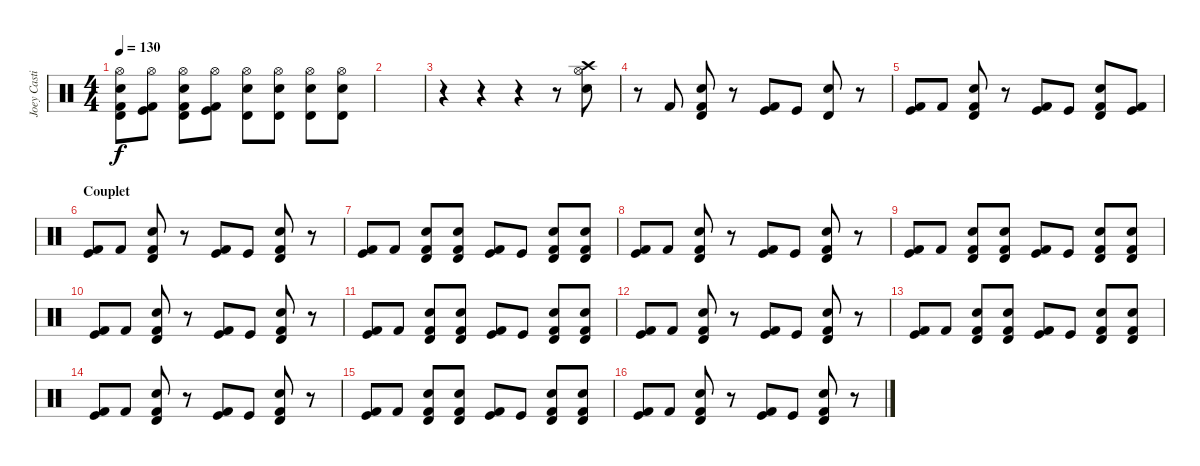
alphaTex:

\track ("Joey Castillo  (Batterie)" "Joey Casti") {instrument percussion}
\staff {score}
\articulation defaults
\ts (4 4)
\tempo 130
\clef neutral
\ks c
("Timbale high (hit)" "Electric Snare (hit)" "Kick (hit) 2" "Hi-Hat (open)").8{dy f} ("Kick (hit)" "Kick (hit) 2" "Hi-Hat (open)").8 ("Timbale high (hit)" "Electric Snare (hit)" "Kick (hit) 2" "Hi-Hat (open)").8 ("Kick (hit)" "Kick (hit) 2" "Hi-Hat (open)").8 ("Timbale high (hit)" "Electric Snare (hit)" "Hi-Hat (open)").8 ("Timbale high (hit)" "Electric Snare (hit)" "Hi-Hat (open)").8 ("Timbale high (hit)" "Electric Snare (hit)" "Hi-Hat (open)").8 ("Timbale high (hit)" "Electric Snare (hit)" "Hi-Hat (open)").8 |
\section ("" "")
|
r.4 r.4 r.4 r.8 ("Electric Snare (hit)" "Crash high (hit)" "Hi-Hat (open)").8 |
r.8 "Kick (hit) 2".8 ("Kick (hit) 2" "Timbale high (hit)" "Electric Snare (hit)").8 r.8 ("Kick (hit) 2" "Kick (hit)").8 "Kick (hit)".8 ("Timbale high (hit)" "Electric Snare (hit)").8 r.8 |
("Kick (hit) 2" "Kick (hit)").8 "Kick (hit) 2".8 ("Kick (hit) 2" "Timbale high (hit)" "Electric Snare (hit)").8 r.8 ("Kick (hit) 2" "Kick (hit)").8 "Kick (hit)".8 ("Kick (hit) 2" "Timbale high (hit)" "Electric Snare (hit)").8 ("Kick (hit)" "Kick (hit) 2").8 |
\section ("" "Couplet")
("Kick (hit) 2" "Kick (hit)").8 "Kick (hit) 2".8 ("Kick (hit) 2" "Timbale high (hit)" "Electric Snare (hit)").8 r.8 ("Kick (hit) 2" "Kick (hit)").8 "Kick (hit)".8 ("Kick (hit) 2" "Timbale high (hit)" "Electric Snare (hit)").8 r.8 |
("Kick (hit) 2" "Kick (hit)").8 "Kick (hit) 2".8 ("Kick (hit) 2" "Timbale high (hit)" "Electric Snare (hit)").8 ("Kick (hit) 2" "Timbale high (hit)" "Electric Snare (hit)").8 ("Kick (hit) 2" "Kick (hit)").8 "Kick (hit)".8 ("Kick (hit) 2" "Timbale high (hit)" "Electric Snare (hit)").8 ("Kick (hit) 2" "Timbale high (hit)" "Electric Snare (hit)").8 |
("Kick (hit) 2" "Kick (hit)").8 "Kick (hit) 2".8 ("Kick (hit) 2" "Timbale high (hit)" "Electric Snare (hit)").8 r.8 ("Kick (hit) 2" "Kick (hit)").8 "Kick (hit)".8 ("Kick (hit) 2" "Timbale high (hit)" "Electric Snare (hit)").8 r.8 |
("Kick (hit) 2" "Kick (hit)").8 "Kick (hit) 2".8 ("Kick (hit) 2" "Timbale high (hit)" "Electric Snare (hit)").8 ("Kick (hit) 2" "Timbale high (hit)" "Electric Snare (hit)").8 ("Kick (hit) 2" "Kick (hit)").8 "Kick (hit)".8 ("Kick (hit) 2" "Timbale high (hit)" "Electric Snare (hit)").8 ("Kick (hit) 2" "Timbale high (hit)" "Electric Snare (hit)").8 |
("Kick (hit) 2" "Kick (hit)").8 "Kick (hit) 2".8 ("Kick (hit) 2" "Timbale high (hit)" "Electric Snare (hit)").8 r.8 ("Kick (hit) 2" "Kick (hit)").8 "Kick (hit)".8 ("Kick (hit) 2" "Timbale high (hit)" "Electric Snare (hit)").8 r.8 |
("Kick (hit) 2" "Kick (hit)").8 "Kick (hit) 2".8 ("Kick (hit) 2" "Timbale high (hit)" "Electric Snare (hit)").8 ("Kick (hit) 2" "Timbale high (hit)" "Electric Snare (hit)").8 ("Kick (hit) 2" "Kick (hit)").8 "Kick (hit)".8 ("Kick (hit) 2" "Timbale high (hit)" "Electric Snare (hit)").8 ("Kick (hit) 2" "Timbale high (hit)" "Electric Snare (hit)").8 |
("Kick (hit) 2" "Kick (hit)").8 "Kick (hit) 2".8 ("Kick (hit) 2" "Timbale high (hit)" "Electric Snare (hit)").8 r.8 ("Kick (hit) 2" "Kick (hit)").8 "Kick (hit)".8 ("Kick (hit) 2" "Timbale high (hit)" "Electric Snare (hit)").8 r.8 |
("Kick (hit) 2" "Kick (hit)").8 "Kick (hit) 2".8 ("Kick (hit) 2" "Timbale high (hit)" "Electric Snare (hit)").8 ("Kick (hit) 2" "Timbale high (hit)" "Electric Snare (hit)").8 ("Kick (hit) 2" "Kick (hit)").8 "Kick (hit)".8 ("Kick (hit) 2" "Timbale high (hit)" "Electric Snare (hit)").8 ("Kick (hit) 2" "Timbale high (hit)" "Electric Snare (hit)").8 |
("Kick (hit) 2" "Kick (hit)").8 "Kick (hit) 2".8 ("Kick (hit) 2" "Timbale high (hit)" "Electric Snare (hit)").8 r.8 ("Kick (hit) 2" "Kick (hit)").8 "Kick (hit)".8 ("Kick (hit) 2" "Timbale high (hit)" "Electric Snare (hit)").8 r.8 |
("Kick (hit) 2" "Kick (hit)").8 "Kick (hit) 2".8 ("Kick (hit) 2" "Timbale high (hit)" "Electric Snare (hit)").8 ("Kick (hit) 2" "Timbale high (hit)" "Electric Snare (hit)").8 ("Kick (hit) 2" "Kick (hit)").8 "Kick (hit)".8 ("Kick (hit) 2" "Timbale high (hit)" "Electric Snare (hit)").8 ("Kick (hit) 2" "Timbale high (hit)" "Electric Snare (hit)").8 |
("Kick (hit) 2" "Kick (hit)").8 "Kick (hit) 2".8 ("Kick (hit) 2" "Timbale high (hit)" "Electric Snare (hit)").8 r.8 ("Kick (hit) 2" "Kick (hit)").8 "Kick (hit)".8 ("Kick (hit) 2" "Timbale high (hit)" "Electric Snare (hit)").8 r.8
